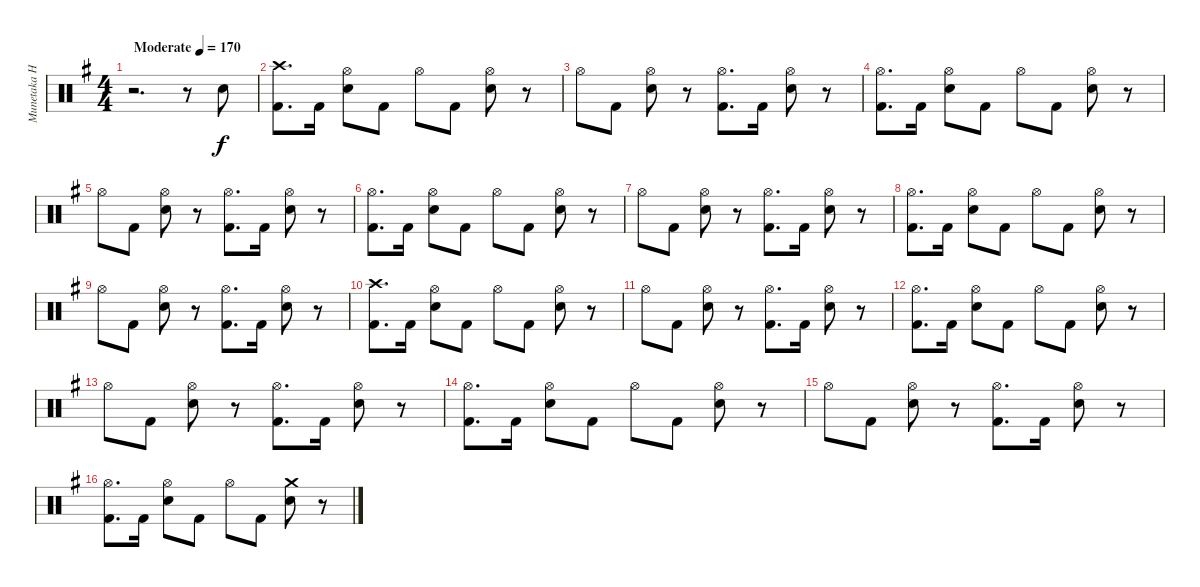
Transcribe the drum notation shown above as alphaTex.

\track ("Munetaka Higuchi" "Munetaka H") {instrument percussion}
\staff {score}
\articulation defaults
\ts (4 4)
\tempo (170 "Moderate")
\clef neutral
\ks eminor
r.2{d dy f} r.8 "Electric Snare (hit)".8 |
("Crash high (hit)" "Kick (hit) 2").8{d} "Kick (hit) 2".16 ("Hi-Hat (open)" "Electric Snare (hit)").8 "Kick (hit) 2".8 "Hi-Hat (open)".8 "Kick (hit) 2".8 ("Hi-Hat (open)" "Electric Snare (hit)").8 r.8 |
"Hi-Hat (open)".8 "Kick (hit) 2".8 ("Hi-Hat (open)" "Electric Snare (hit)").8 r.8 ("Hi-Hat (open)" "Kick (hit) 2").8{d} "Kick (hit) 2".16 ("Hi-Hat (open)" "Electric Snare (hit)").8 r.8 |
("Hi-Hat (open)" "Kick (hit) 2").8{d} "Kick (hit) 2".16 ("Hi-Hat (open)" "Electric Snare (hit)").8 "Kick (hit) 2".8 "Hi-Hat (open)".8 "Kick (hit) 2".8 ("Hi-Hat (open)" "Electric Snare (hit)").8 r.8 |
"Hi-Hat (open)".8 "Kick (hit) 2".8 ("Hi-Hat (open)" "Electric Snare (hit)").8 r.8 ("Hi-Hat (open)" "Kick (hit) 2").8{d} "Kick (hit) 2".16 ("Hi-Hat (open)" "Electric Snare (hit)").8 r.8 |
("Hi-Hat (open)" "Kick (hit) 2").8{d} "Kick (hit) 2".16 ("Hi-Hat (open)" "Electric Snare (hit)").8 "Kick (hit) 2".8 "Hi-Hat (open)".8 "Kick (hit) 2".8 ("Hi-Hat (open)" "Electric Snare (hit)").8 r.8 |
"Hi-Hat (open)".8 "Kick (hit) 2".8 ("Hi-Hat (open)" "Electric Snare (hit)").8 r.8 ("Hi-Hat (open)" "Kick (hit) 2").8{d} "Kick (hit) 2".16 ("Hi-Hat (open)" "Electric Snare (hit)").8 r.8 |
("Hi-Hat (open)" "Kick (hit) 2").8{d} "Kick (hit) 2".16 ("Hi-Hat (open)" "Electric Snare (hit)").8 "Kick (hit) 2".8 "Hi-Hat (open)".8 "Kick (hit) 2".8 ("Hi-Hat (open)" "Electric Snare (hit)").8 r.8 |
"Hi-Hat (open)".8 "Kick (hit) 2".8 ("Hi-Hat (open)" "Electric Snare (hit)").8 r.8 ("Hi-Hat (open)" "Kick (hit) 2").8{d} "Kick (hit) 2".16 ("Hi-Hat (open)" "Electric Snare (hit)").8 r.8 |
("Crash high (hit)" "Kick (hit) 2").8{d} "Kick (hit) 2".16 ("Hi-Hat (open)" "Electric Snare (hit)").8 "Kick (hit) 2".8 "Hi-Hat (open)".8 "Kick (hit) 2".8 ("Hi-Hat (open)" "Electric Snare (hit)").8 r.8 |
"Hi-Hat (open)".8 "Kick (hit) 2".8 ("Hi-Hat (open)" "Electric Snare (hit)").8 r.8 ("Hi-Hat (open)" "Kick (hit) 2").8{d} "Kick (hit) 2".16 ("Hi-Hat (open)" "Electric Snare (hit)").8 r.8 |
("Hi-Hat (open)" "Kick (hit) 2").8{d} "Kick (hit) 2".16 ("Hi-Hat (open)" "Electric Snare (hit)").8 "Kick (hit) 2".8 "Hi-Hat (open)".8 "Kick (hit) 2".8 ("Hi-Hat (open)" "Electric Snare (hit)").8 r.8 |
"Hi-Hat (open)".8 "Kick (hit) 2".8 ("Hi-Hat (open)" "Electric Snare (hit)").8 r.8 ("Hi-Hat (open)" "Kick (hit) 2").8{d} "Kick (hit) 2".16 ("Hi-Hat (open)" "Electric Snare (hit)").8 r.8 |
("Hi-Hat (open)" "Kick (hit) 2").8{d} "Kick (hit) 2".16 ("Hi-Hat (open)" "Electric Snare (hit)").8 "Kick (hit) 2".8 "Hi-Hat (open)".8 "Kick (hit) 2".8 ("Hi-Hat (open)" "Electric Snare (hit)").8 r.8 |
"Hi-Hat (open)".8 "Kick (hit) 2".8 ("Hi-Hat (open)" "Electric Snare (hit)").8 r.8 ("Hi-Hat (open)" "Kick (hit) 2").8{d} "Kick (hit) 2".16 ("Hi-Hat (open)" "Electric Snare (hit)").8 r.8 |
("Hi-Hat (open)" "Kick (hit) 2").8{d} "Kick (hit) 2".16 ("Hi-Hat (open)" "Electric Snare (hit)").8 "Kick (hit) 2".8 "Hi-Hat (open)".8 "Kick (hit) 2".8 ("Crash medium (hit)" "Electric Snare (hit)").8 r.8
